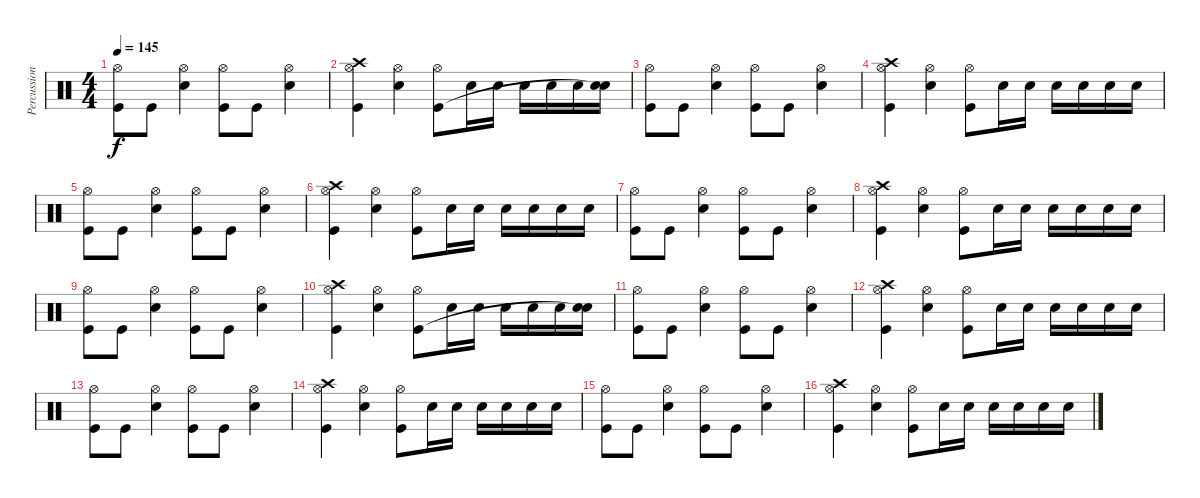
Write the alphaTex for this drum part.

\track ("Percussion" "Percussion") {instrument percussion}
\staff {score}
\articulation defaults
\ts (4 4)
\tempo 145
\clef neutral
\ks c
("Hi-Hat (open)" "Kick (hit)").8{dy f} "Kick (hit)".8 ("Hi-Hat (open)" "Snare (hit) 2").4 ("Hi-Hat (open)" "Kick (hit)").8 "Kick (hit)".8 ("Hi-Hat (open)" "Snare (hit) 2").4 |
("Kick (hit)" "Hi-Hat (open)" "Crash high (hit)").4 ("Hi-Hat (open)" "Snare (hit) 2").4 ("Hi-Hat (open)" "Kick (hit)").8 "Snare (hit) 2".16 "Snare (hit) 2".16 "Snare (hit) 2".16 "Snare (hit) 2".16 "Snare (hit) 2".16 ("Snare (hit) 2" "Snare (hit)"{t}).16 |
("Hi-Hat (open)" "Kick (hit)").8 "Kick (hit)".8 ("Hi-Hat (open)" "Snare (hit) 2").4 ("Hi-Hat (open)" "Kick (hit)").8 "Kick (hit)".8 ("Hi-Hat (open)" "Snare (hit) 2").4 |
("Kick (hit)" "Hi-Hat (open)" "Crash high (hit)").4 ("Hi-Hat (open)" "Snare (hit) 2").4 ("Hi-Hat (open)" "Kick (hit)").8 "Snare (hit) 2".16 "Snare (hit) 2".16 "Snare (hit) 2".16 "Snare (hit) 2".16 "Snare (hit) 2".16 "Snare (hit) 2".16 |
("Hi-Hat (open)" "Kick (hit)").8 "Kick (hit)".8 ("Hi-Hat (open)" "Snare (hit) 2").4 ("Hi-Hat (open)" "Kick (hit)").8 "Kick (hit)".8 ("Hi-Hat (open)" "Snare (hit) 2").4 |
("Kick (hit)" "Hi-Hat (open)" "Crash high (hit)").4 ("Hi-Hat (open)" "Snare (hit) 2").4 ("Hi-Hat (open)" "Kick (hit)").8 "Snare (hit) 2".16 "Snare (hit) 2".16 "Snare (hit) 2".16 "Snare (hit) 2".16 "Snare (hit) 2".16 "Snare (hit) 2".16 |
("Hi-Hat (open)" "Kick (hit)").8 "Kick (hit)".8 ("Hi-Hat (open)" "Snare (hit) 2").4 ("Hi-Hat (open)" "Kick (hit)").8 "Kick (hit)".8 ("Hi-Hat (open)" "Snare (hit) 2").4 |
("Kick (hit)" "Hi-Hat (open)" "Crash high (hit)").4 ("Hi-Hat (open)" "Snare (hit) 2").4 ("Hi-Hat (open)" "Kick (hit)").8 "Snare (hit) 2".16 "Snare (hit) 2".16 "Snare (hit) 2".16 "Snare (hit) 2".16 "Snare (hit) 2".16 "Snare (hit) 2".16 |
("Hi-Hat (open)" "Kick (hit)").8 "Kick (hit)".8 ("Hi-Hat (open)" "Snare (hit) 2").4 ("Hi-Hat (open)" "Kick (hit)").8 "Kick (hit)".8 ("Hi-Hat (open)" "Snare (hit) 2").4 |
("Kick (hit)" "Hi-Hat (open)" "Crash high (hit)").4 ("Hi-Hat (open)" "Snare (hit) 2").4 ("Hi-Hat (open)" "Kick (hit)").8 "Snare (hit) 2".16 "Snare (hit) 2".16 "Snare (hit) 2".16 "Snare (hit) 2".16 "Snare (hit) 2".16 ("Snare (hit) 2" "Snare (hit)"{t}).16 |
("Hi-Hat (open)" "Kick (hit)").8 "Kick (hit)".8 ("Hi-Hat (open)" "Snare (hit) 2").4 ("Hi-Hat (open)" "Kick (hit)").8 "Kick (hit)".8 ("Hi-Hat (open)" "Snare (hit) 2").4 |
("Kick (hit)" "Hi-Hat (open)" "Crash high (hit)").4 ("Hi-Hat (open)" "Snare (hit) 2").4 ("Hi-Hat (open)" "Kick (hit)").8 "Snare (hit) 2".16 "Snare (hit) 2".16 "Snare (hit) 2".16 "Snare (hit) 2".16 "Snare (hit) 2".16 "Snare (hit) 2".16 |
("Hi-Hat (open)" "Kick (hit)").8 "Kick (hit)".8 ("Hi-Hat (open)" "Snare (hit) 2").4 ("Hi-Hat (open)" "Kick (hit)").8 "Kick (hit)".8 ("Hi-Hat (open)" "Snare (hit) 2").4 |
("Kick (hit)" "Hi-Hat (open)" "Crash high (hit)").4 ("Hi-Hat (open)" "Snare (hit) 2").4 ("Hi-Hat (open)" "Kick (hit)").8 "Snare (hit) 2".16 "Snare (hit) 2".16 "Snare (hit) 2".16 "Snare (hit) 2".16 "Snare (hit) 2".16 "Snare (hit) 2".16 |
("Hi-Hat (open)" "Kick (hit)").8 "Kick (hit)".8 ("Hi-Hat (open)" "Snare (hit) 2").4 ("Hi-Hat (open)" "Kick (hit)").8 "Kick (hit)".8 ("Hi-Hat (open)" "Snare (hit) 2").4 |
("Kick (hit)" "Hi-Hat (open)" "Crash high (hit)").4 ("Hi-Hat (open)" "Snare (hit) 2").4 ("Hi-Hat (open)" "Kick (hit)").8 "Snare (hit) 2".16 "Snare (hit) 2".16 "Snare (hit) 2".16 "Snare (hit) 2".16 "Snare (hit) 2".16 "Snare (hit) 2".16
